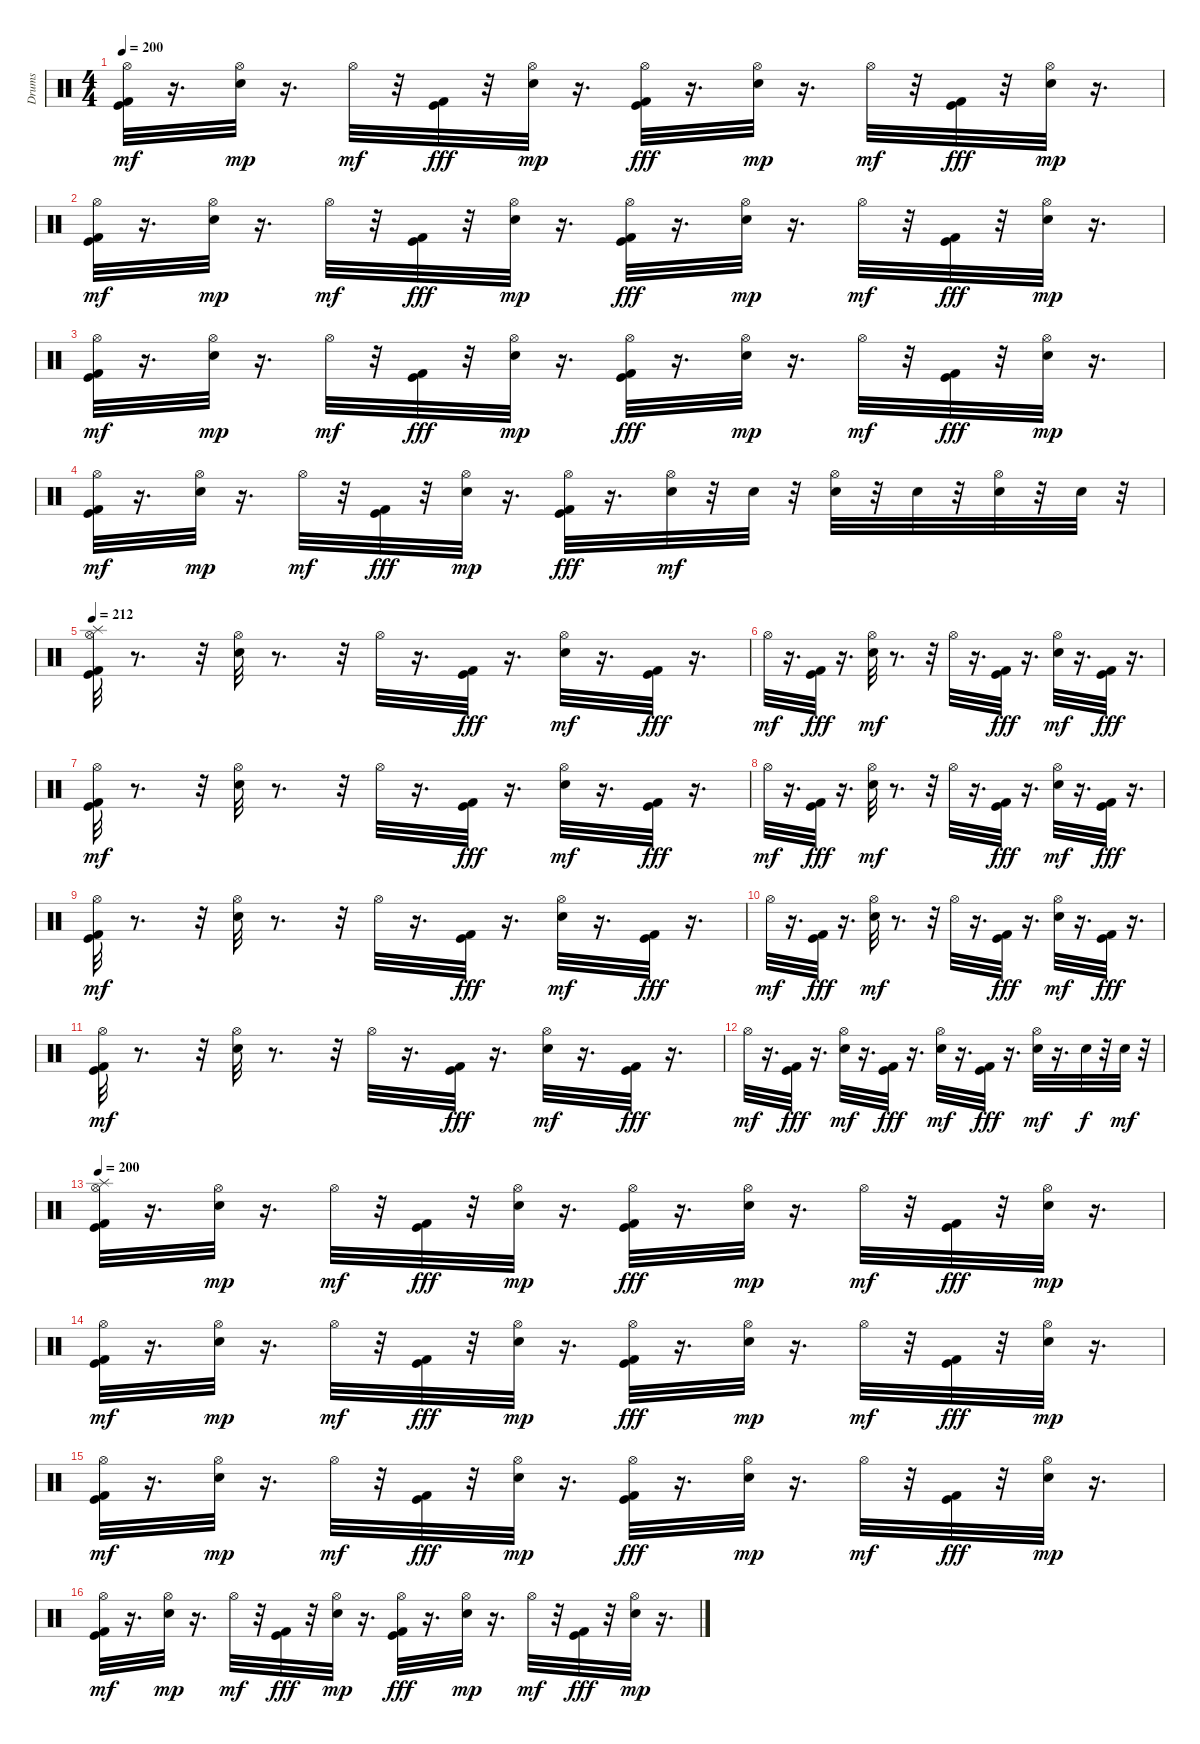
\track ("Drums" "Drums") {instrument percussion}
\staff {score}
\articulation defaults
\ts (4 4)
\tempo 200
\clef neutral
\ks c
("Kick (hit) 2" "Kick (hit)" "Hi-Hat (open)").32{dy mf} r.16{d} ("Hi-Hat (open)" "Snare (hit) 2").32{dy mp} r.16{d} "Hi-Hat (open)".32{dy mf} r.32 ("Kick (hit)" "Kick (hit) 2").32{dy fff} r.32 ("Hi-Hat (open)" "Snare (hit) 2").32{dy mp} r.16{d} ("Hi-Hat (open)" "Kick (hit) 2" "Kick (hit)").32{dy fff} r.16{d} ("Hi-Hat (open)" "Snare (hit) 2").32{dy mp} r.16{d} "Hi-Hat (open)".32{dy mf} r.32 ("Kick (hit)" "Kick (hit) 2").32{dy fff} r.32 ("Hi-Hat (open)" "Snare (hit) 2").32{dy mp} r.16{d} |
("Kick (hit) 2" "Kick (hit)" "Hi-Hat (open)").32{dy mf} r.16{d} ("Hi-Hat (open)" "Snare (hit) 2").32{dy mp} r.16{d} "Hi-Hat (open)".32{dy mf} r.32 ("Kick (hit)" "Kick (hit) 2").32{dy fff} r.32 ("Hi-Hat (open)" "Snare (hit) 2").32{dy mp} r.16{d} ("Hi-Hat (open)" "Kick (hit) 2" "Kick (hit)").32{dy fff} r.16{d} ("Hi-Hat (open)" "Snare (hit) 2").32{dy mp} r.16{d} "Hi-Hat (open)".32{dy mf} r.32 ("Kick (hit)" "Kick (hit) 2").32{dy fff} r.32 ("Hi-Hat (open)" "Snare (hit) 2").32{dy mp} r.16{d} |
("Kick (hit) 2" "Kick (hit)" "Hi-Hat (open)").32{dy mf} r.16{d} ("Hi-Hat (open)" "Snare (hit) 2").32{dy mp} r.16{d} "Hi-Hat (open)".32{dy mf} r.32 ("Kick (hit)" "Kick (hit) 2").32{dy fff} r.32 ("Hi-Hat (open)" "Snare (hit) 2").32{dy mp} r.16{d} ("Hi-Hat (open)" "Kick (hit) 2" "Kick (hit)").32{dy fff} r.16{d} ("Hi-Hat (open)" "Snare (hit) 2").32{dy mp} r.16{d} "Hi-Hat (open)".32{dy mf} r.32 ("Kick (hit)" "Kick (hit) 2").32{dy fff} r.32 ("Hi-Hat (open)" "Snare (hit) 2").32{dy mp} r.16{d} |
("Kick (hit) 2" "Kick (hit)" "Hi-Hat (open)").32{dy mf} r.16{d} ("Hi-Hat (open)" "Snare (hit) 2").32{dy mp} r.16{d} "Hi-Hat (open)".32{dy mf} r.32 ("Kick (hit)" "Kick (hit) 2").32{dy fff} r.32 ("Hi-Hat (open)" "Snare (hit) 2").32{dy mp} r.16{d} ("Hi-Hat (open)" "Kick (hit) 2" "Kick (hit)").32{dy fff} r.16{d} ("Hi-Hat (open)" "Snare (hit) 2").32{dy mf} r.32 "Snare (hit) 2".32 r.32 ("Hi-Hat (open)" "Snare (hit) 2").32 r.32 "Snare (hit) 2".32 r.32 ("Hi-Hat (open)" "Snare (hit) 2").32 r.32 "Snare (hit) 2".32 r.32 |
\tempo 212
("Splash (hit)" "Kick (hit) 2" "Kick (hit)" "Hi-Hat (open)").32 r.8{d} r.32 ("Snare (hit) 2" "Hi-Hat (open)").32 r.8{d} r.32 "Hi-Hat (open)".32 r.16{d} ("Kick (hit)" "Kick (hit) 2").32{dy fff} r.16{d} ("Hi-Hat (open)" "Snare (hit) 2").32{dy mf} r.16{d} ("Kick (hit)" "Kick (hit) 2").32{dy fff} r.16{d} |
"Hi-Hat (open)".32{dy mf} r.16{d} ("Kick (hit)" "Kick (hit) 2").32{dy fff} r.16{d} ("Hi-Hat (open)" "Snare (hit) 2").32{dy mf} r.8{d} r.32 "Hi-Hat (open)".32 r.16{d} ("Kick (hit)" "Kick (hit) 2").32{dy fff} r.16{d} ("Hi-Hat (open)" "Snare (hit) 2").32{dy mf} r.16{d} ("Kick (hit)" "Kick (hit) 2").32{dy fff} r.16{d} |
("Kick (hit) 2" "Kick (hit)" "Hi-Hat (open)").32{dy mf} r.8{d} r.32 ("Snare (hit) 2" "Hi-Hat (open)").32 r.8{d} r.32 "Hi-Hat (open)".32 r.16{d} ("Kick (hit)" "Kick (hit) 2").32{dy fff} r.16{d} ("Hi-Hat (open)" "Snare (hit) 2").32{dy mf} r.16{d} ("Kick (hit)" "Kick (hit) 2").32{dy fff} r.16{d} |
"Hi-Hat (open)".32{dy mf} r.16{d} ("Kick (hit)" "Kick (hit) 2").32{dy fff} r.16{d} ("Hi-Hat (open)" "Snare (hit) 2").32{dy mf} r.8{d} r.32 "Hi-Hat (open)".32 r.16{d} ("Kick (hit)" "Kick (hit) 2").32{dy fff} r.16{d} ("Hi-Hat (open)" "Snare (hit) 2").32{dy mf} r.16{d} ("Kick (hit)" "Kick (hit) 2").32{dy fff} r.16{d} |
("Kick (hit) 2" "Kick (hit)" "Hi-Hat (open)").32{dy mf} r.8{d} r.32 ("Snare (hit) 2" "Hi-Hat (open)").32 r.8{d} r.32 "Hi-Hat (open)".32 r.16{d} ("Kick (hit)" "Kick (hit) 2").32{dy fff} r.16{d} ("Hi-Hat (open)" "Snare (hit) 2").32{dy mf} r.16{d} ("Kick (hit)" "Kick (hit) 2").32{dy fff} r.16{d} |
"Hi-Hat (open)".32{dy mf} r.16{d} ("Kick (hit)" "Kick (hit) 2").32{dy fff} r.16{d} ("Hi-Hat (open)" "Snare (hit) 2").32{dy mf} r.8{d} r.32 "Hi-Hat (open)".32 r.16{d} ("Kick (hit)" "Kick (hit) 2").32{dy fff} r.16{d} ("Hi-Hat (open)" "Snare (hit) 2").32{dy mf} r.16{d} ("Kick (hit)" "Kick (hit) 2").32{dy fff} r.16{d} |
("Kick (hit) 2" "Kick (hit)" "Hi-Hat (open)").32{dy mf} r.8{d} r.32 ("Snare (hit) 2" "Hi-Hat (open)").32 r.8{d} r.32 "Hi-Hat (open)".32 r.16{d} ("Kick (hit)" "Kick (hit) 2").32{dy fff} r.16{d} ("Hi-Hat (open)" "Snare (hit) 2").32{dy mf} r.16{d} ("Kick (hit)" "Kick (hit) 2").32{dy fff} r.16{d} |
"Hi-Hat (open)".32{dy mf} r.16{d} ("Kick (hit)" "Kick (hit) 2").32{dy fff} r.16{d} ("Hi-Hat (open)" "Snare (hit) 2").32{dy mf} r.16{d} ("Kick (hit)" "Kick (hit) 2").32{dy fff} r.16{d} ("Hi-Hat (open)" "Snare (hit) 2").32{dy mf} r.16{d} ("Kick (hit)" "Kick (hit) 2").32{dy fff} r.16{d} ("Hi-Hat (open)" "Snare (hit) 2").32{dy mf} r.16{d} "Snare (hit) 2".32{dy f} r.32 "Snare (hit) 2".32{dy mf} r.32 |
\tempo 200
("Kick (hit) 2" "Kick (hit)" "Splash (hit)" "Hi-Hat (open)").32 r.16{d} ("Hi-Hat (open)" "Snare (hit) 2").32{dy mp} r.16{d} "Hi-Hat (open)".32{dy mf} r.32 ("Kick (hit)" "Kick (hit) 2").32{dy fff} r.32 ("Hi-Hat (open)" "Snare (hit) 2").32{dy mp} r.16{d} ("Hi-Hat (open)" "Kick (hit) 2" "Kick (hit)").32{dy fff} r.16{d} ("Hi-Hat (open)" "Snare (hit) 2").32{dy mp} r.16{d} "Hi-Hat (open)".32{dy mf} r.32 ("Kick (hit)" "Kick (hit) 2").32{dy fff} r.32 ("Hi-Hat (open)" "Snare (hit) 2").32{dy mp} r.16{d} |
("Kick (hit) 2" "Kick (hit)" "Hi-Hat (open)").32{dy mf} r.16{d} ("Hi-Hat (open)" "Snare (hit) 2").32{dy mp} r.16{d} "Hi-Hat (open)".32{dy mf} r.32 ("Kick (hit)" "Kick (hit) 2").32{dy fff} r.32 ("Hi-Hat (open)" "Snare (hit) 2").32{dy mp} r.16{d} ("Hi-Hat (open)" "Kick (hit) 2" "Kick (hit)").32{dy fff} r.16{d} ("Hi-Hat (open)" "Snare (hit) 2").32{dy mp} r.16{d} "Hi-Hat (open)".32{dy mf} r.32 ("Kick (hit)" "Kick (hit) 2").32{dy fff} r.32 ("Hi-Hat (open)" "Snare (hit) 2").32{dy mp} r.16{d} |
("Kick (hit) 2" "Kick (hit)" "Hi-Hat (open)").32{dy mf} r.16{d} ("Hi-Hat (open)" "Snare (hit) 2").32{dy mp} r.16{d} "Hi-Hat (open)".32{dy mf} r.32 ("Kick (hit)" "Kick (hit) 2").32{dy fff} r.32 ("Hi-Hat (open)" "Snare (hit) 2").32{dy mp} r.16{d} ("Hi-Hat (open)" "Kick (hit) 2" "Kick (hit)").32{dy fff} r.16{d} ("Hi-Hat (open)" "Snare (hit) 2").32{dy mp} r.16{d} "Hi-Hat (open)".32{dy mf} r.32 ("Kick (hit)" "Kick (hit) 2").32{dy fff} r.32 ("Hi-Hat (open)" "Snare (hit) 2").32{dy mp} r.16{d} |
("Kick (hit) 2" "Kick (hit)" "Hi-Hat (open)").32{dy mf} r.16{d} ("Hi-Hat (open)" "Snare (hit) 2").32{dy mp} r.16{d} "Hi-Hat (open)".32{dy mf} r.32 ("Kick (hit)" "Kick (hit) 2").32{dy fff} r.32 ("Hi-Hat (open)" "Snare (hit) 2").32{dy mp} r.16{d} ("Hi-Hat (open)" "Kick (hit) 2" "Kick (hit)").32{dy fff} r.16{d} ("Hi-Hat (open)" "Snare (hit) 2").32{dy mp} r.16{d} "Hi-Hat (open)".32{dy mf} r.32 ("Kick (hit)" "Kick (hit) 2").32{dy fff} r.32 ("Hi-Hat (open)" "Snare (hit) 2").32{dy mp} r.16{d}
